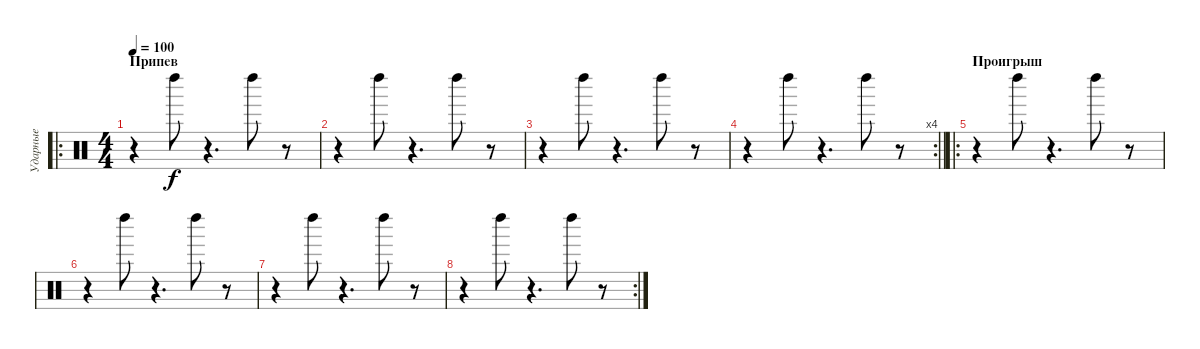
\track ("Ударные" "Ударные") {instrument percussion}
\staff {score}
\articulation defaults
\ro
\ts (4 4)
\section ("" "Припев")
\tempo 100
\clef neutral
\ks c
r.4{dy f} "Left Maraca (hit)".8 r.4{d} "Left Maraca (hit)".8 r.8 |
r.4 "Left Maraca (hit)".8 r.4{d} "Left Maraca (hit)".8 r.8 |
r.4 "Left Maraca (hit)".8 r.4{d} "Left Maraca (hit)".8 r.8 |
\rc 4
\barLineRight lightlight
r.4 "Left Maraca (hit)".8 r.4{d} "Left Maraca (hit)".8 r.8 |
\ro
\section ("" "Проигрыш")
r.4 "Left Maraca (hit)".8 r.4{d} "Left Maraca (hit)".8 r.8 |
r.4 "Left Maraca (hit)".8 r.4{d} "Left Maraca (hit)".8 r.8 |
r.4 "Left Maraca (hit)".8 r.4{d} "Left Maraca (hit)".8 r.8 |
\rc 2
r.4 "Left Maraca (hit)".8 r.4{d} "Left Maraca (hit)".8 r.8
